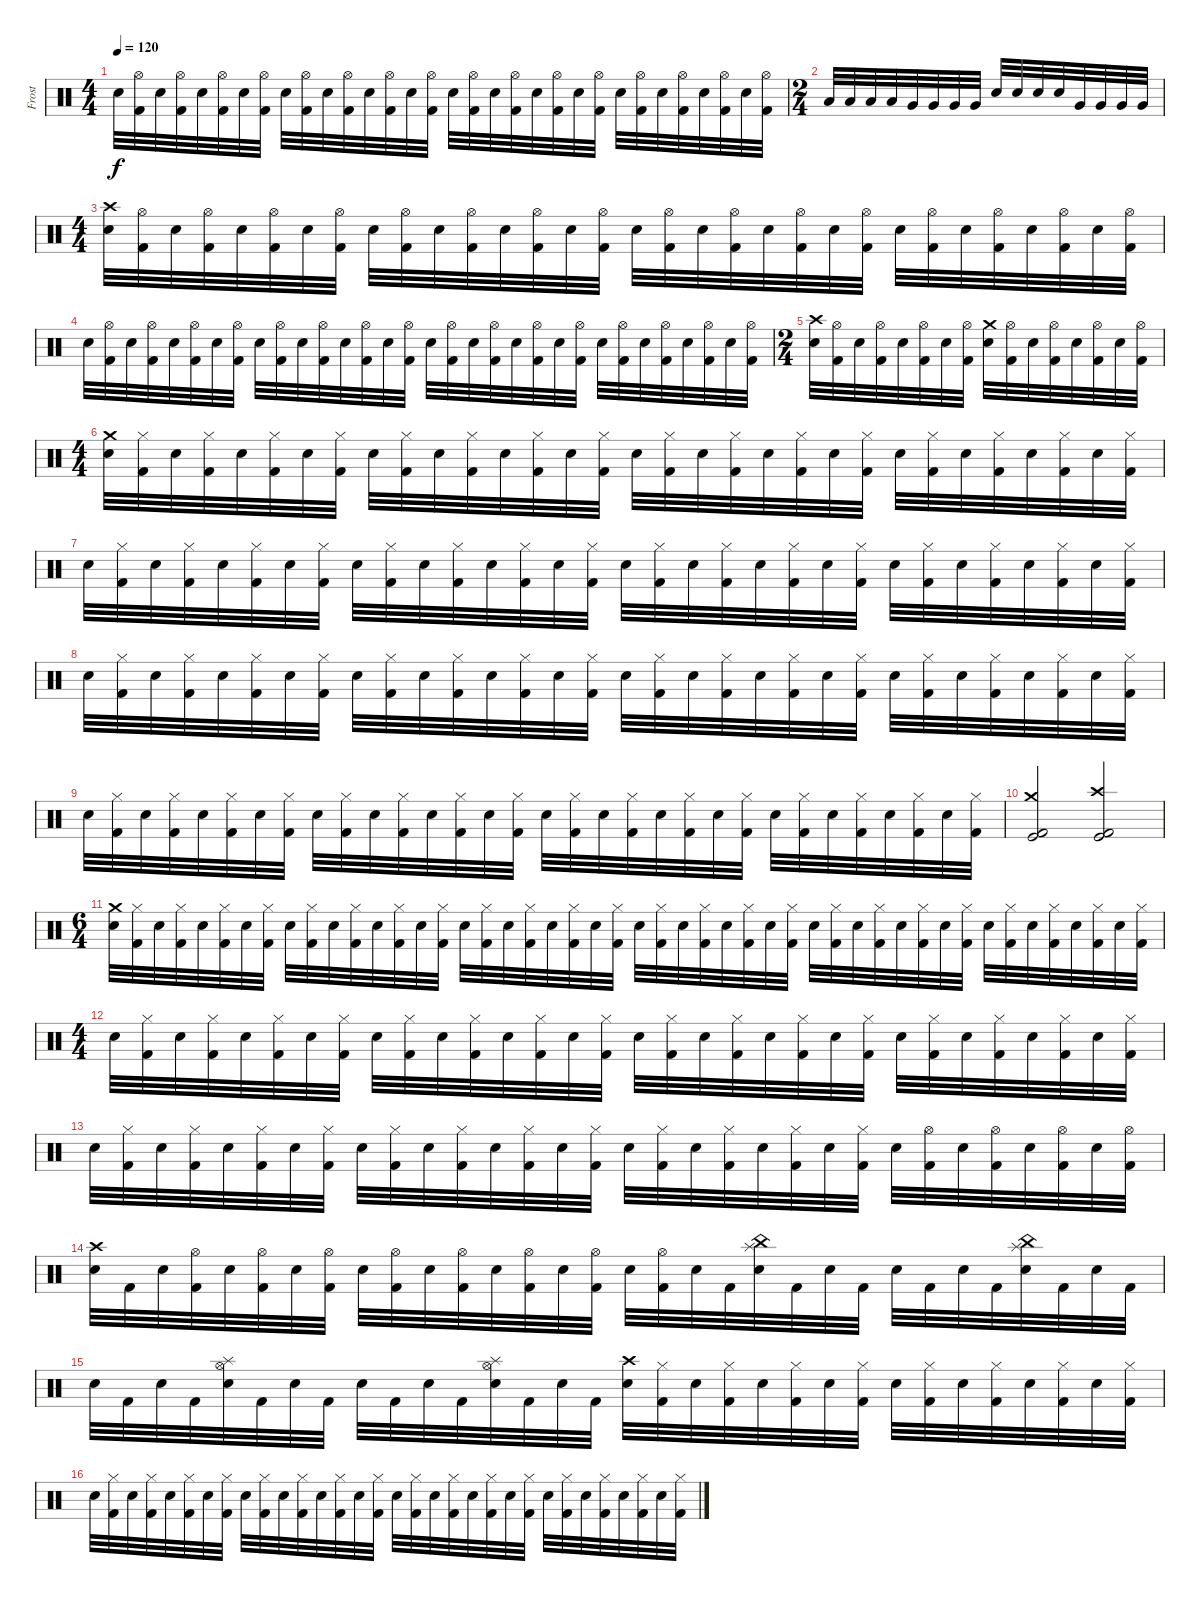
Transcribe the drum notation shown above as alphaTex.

\track ("Frost" "Frost") {instrument percussion}
\staff {score}
\articulation defaults
\ts (4 4)
\tempo 120
\clef neutral
\ks c "Snare (hit) 2".32{dy f}
("Hi-Hat (open)" "Kick (hit) 2").32 "Snare (hit) 2".32 ("Hi-Hat (open)" "Kick (hit) 2").32 "Snare (hit) 2".32 ("Hi-Hat (open)" "Kick (hit) 2").32 "Snare (hit) 2".32 ("Hi-Hat (open)" "Kick (hit) 2").32 "Snare (hit) 2".32 ("Hi-Hat (open)" "Kick (hit) 2").32 "Snare (hit) 2".32 ("Hi-Hat (open)" "Kick (hit) 2").32 "Snare (hit) 2".32 ("Hi-Hat (open)" "Kick (hit) 2").32 "Snare (hit) 2".32 ("Hi-Hat (open)" "Kick (hit) 2").32 "Snare (hit) 2".32 ("Hi-Hat (open)" "Kick (hit) 2").32 "Snare (hit) 2".32 ("Hi-Hat (open)" "Kick (hit) 2").32 "Snare (hit) 2".32 ("Hi-Hat (open)" "Kick (hit) 2").32 "Snare (hit) 2".32 ("Hi-Hat (open)" "Kick (hit) 2").32 "Snare (hit) 2".32 ("Hi-Hat (open)" "Kick (hit) 2").32 "Snare (hit) 2".32 ("Hi-Hat (open)" "Kick (hit) 2").32 "Snare (hit) 2".32 ("Hi-Hat (open)" "Kick (hit) 2").32 "Snare (hit) 2".32 ("Hi-Hat (open)" "Kick (hit) 2").32 |
\ts (2 4)
"Low Tom (hit)".32 "Low Tom (hit)".32 "Low Tom (hit)".32 "Low Tom (hit)".32 "Very Low Tom (hit)".32 "Very Low Tom (hit)".32 "Very Low Tom (hit)".32 "Very Low Tom (hit)".32 "Snare (hit) 2".32 "Snare (hit) 2".32 "Snare (hit) 2".32 "Snare (hit) 2".32 "Very Low Tom (hit)".32 "Very Low Tom (hit)".32 "Very Low Tom (hit)".32 "Very Low Tom (hit)".32 |
\ts (4 4)
("Crash high (hit)" "Snare (hit) 2").32 ("Hi-Hat (open)" "Kick (hit) 2").32 "Snare (hit) 2".32 ("Hi-Hat (open)" "Kick (hit) 2").32 "Snare (hit) 2".32 ("Hi-Hat (open)" "Kick (hit) 2").32 "Snare (hit) 2".32 ("Hi-Hat (open)" "Kick (hit) 2").32 "Snare (hit) 2".32 ("Hi-Hat (open)" "Kick (hit) 2").32 "Snare (hit) 2".32 ("Hi-Hat (open)" "Kick (hit) 2").32 "Snare (hit) 2".32 ("Hi-Hat (open)" "Kick (hit) 2").32 "Snare (hit) 2".32 ("Hi-Hat (open)" "Kick (hit) 2").32 "Snare (hit) 2".32 ("Hi-Hat (open)" "Kick (hit) 2").32 "Snare (hit) 2".32 ("Hi-Hat (open)" "Kick (hit) 2").32 "Snare (hit) 2".32 ("Hi-Hat (open)" "Kick (hit) 2").32 "Snare (hit) 2".32 ("Hi-Hat (open)" "Kick (hit) 2").32 "Snare (hit) 2".32 ("Hi-Hat (open)" "Kick (hit) 2").32 "Snare (hit) 2".32 ("Hi-Hat (open)" "Kick (hit) 2").32 "Snare (hit) 2".32 ("Hi-Hat (open)" "Kick (hit) 2").32 "Snare (hit) 2".32 ("Hi-Hat (open)" "Kick (hit) 2").32 |
"Snare (hit) 2".32 ("Hi-Hat (open)" "Kick (hit) 2").32 "Snare (hit) 2".32 ("Hi-Hat (open)" "Kick (hit) 2").32 "Snare (hit) 2".32 ("Hi-Hat (open)" "Kick (hit) 2").32 "Snare (hit) 2".32 ("Hi-Hat (open)" "Kick (hit) 2").32 "Snare (hit) 2".32 ("Hi-Hat (open)" "Kick (hit) 2").32 "Snare (hit) 2".32 ("Hi-Hat (open)" "Kick (hit) 2").32 "Snare (hit) 2".32 ("Hi-Hat (open)" "Kick (hit) 2").32 "Snare (hit) 2".32 ("Hi-Hat (open)" "Kick (hit) 2").32 "Snare (hit) 2".32 ("Hi-Hat (open)" "Kick (hit) 2").32 "Snare (hit) 2".32 ("Hi-Hat (open)" "Kick (hit) 2").32 "Snare (hit) 2".32 ("Hi-Hat (open)" "Kick (hit) 2").32 "Snare (hit) 2".32 ("Hi-Hat (open)" "Kick (hit) 2").32 "Snare (hit) 2".32 ("Hi-Hat (open)" "Kick (hit) 2").32 "Snare (hit) 2".32 ("Hi-Hat (open)" "Kick (hit) 2").32 "Snare (hit) 2".32 ("Hi-Hat (open)" "Kick (hit) 2").32 "Snare (hit) 2".32 ("Hi-Hat (open)" "Kick (hit) 2").32 |
\ts (2 4)
("Crash high (hit)" "Snare (hit) 2").32 ("Hi-Hat (open)" "Kick (hit) 2").32 "Snare (hit) 2".32 ("Hi-Hat (open)" "Kick (hit) 2").32 "Snare (hit) 2".32 ("Hi-Hat (open)" "Kick (hit) 2").32 "Snare (hit) 2".32 ("Hi-Hat (open)" "Kick (hit) 2").32 ("Crash medium (hit)" "Snare (hit) 2").32 ("Hi-Hat (open)" "Kick (hit) 2").32 "Snare (hit) 2".32 ("Hi-Hat (open)" "Kick (hit) 2").32 "Snare (hit) 2".32 ("Hi-Hat (open)" "Kick (hit) 2").32 "Snare (hit) 2".32 ("Hi-Hat (open)" "Kick (hit) 2").32 |
\ts (4 4)
("Crash medium (hit)" "Snare (hit) 2").32 ("Hi-Hat (closed)" "Kick (hit) 2").32 "Snare (hit) 2".32 ("Hi-Hat (closed)" "Kick (hit) 2").32 "Snare (hit) 2".32 ("Hi-Hat (closed)" "Kick (hit) 2").32 "Snare (hit) 2".32 ("Hi-Hat (closed)" "Kick (hit) 2").32 "Snare (hit) 2".32 ("Hi-Hat (closed)" "Kick (hit) 2").32 "Snare (hit) 2".32 ("Hi-Hat (closed)" "Kick (hit) 2").32 "Snare (hit) 2".32 ("Hi-Hat (closed)" "Kick (hit) 2").32 "Snare (hit) 2".32 ("Hi-Hat (closed)" "Kick (hit) 2").32 "Snare (hit) 2".32 ("Hi-Hat (closed)" "Kick (hit) 2").32 "Snare (hit) 2".32 ("Hi-Hat (closed)" "Kick (hit) 2").32 "Snare (hit) 2".32 ("Hi-Hat (closed)" "Kick (hit) 2").32 "Snare (hit) 2".32 ("Hi-Hat (closed)" "Kick (hit) 2").32 "Snare (hit) 2".32 ("Hi-Hat (closed)" "Kick (hit) 2").32 "Snare (hit) 2".32 ("Hi-Hat (closed)" "Kick (hit) 2").32 "Snare (hit) 2".32 ("Hi-Hat (closed)" "Kick (hit) 2").32 "Snare (hit) 2".32 ("Hi-Hat (closed)" "Kick (hit) 2").32 |
"Snare (hit) 2".32 ("Hi-Hat (closed)" "Kick (hit) 2").32 "Snare (hit) 2".32 ("Hi-Hat (closed)" "Kick (hit) 2").32 "Snare (hit) 2".32 ("Hi-Hat (closed)" "Kick (hit) 2").32 "Snare (hit) 2".32 ("Hi-Hat (closed)" "Kick (hit) 2").32 "Snare (hit) 2".32 ("Hi-Hat (closed)" "Kick (hit) 2").32 "Snare (hit) 2".32 ("Hi-Hat (closed)" "Kick (hit) 2").32 "Snare (hit) 2".32 ("Hi-Hat (closed)" "Kick (hit) 2").32 "Snare (hit) 2".32 ("Hi-Hat (closed)" "Kick (hit) 2").32 "Snare (hit) 2".32 ("Hi-Hat (closed)" "Kick (hit) 2").32 "Snare (hit) 2".32 ("Hi-Hat (closed)" "Kick (hit) 2").32 "Snare (hit) 2".32 ("Hi-Hat (closed)" "Kick (hit) 2").32 "Snare (hit) 2".32 ("Hi-Hat (closed)" "Kick (hit) 2").32 "Snare (hit) 2".32 ("Hi-Hat (closed)" "Kick (hit) 2").32 "Snare (hit) 2".32 ("Hi-Hat (closed)" "Kick (hit) 2").32 "Snare (hit) 2".32 ("Hi-Hat (closed)" "Kick (hit) 2").32 "Snare (hit) 2".32 ("Hi-Hat (closed)" "Kick (hit) 2").32 |
"Snare (hit) 2".32 ("Hi-Hat (closed)" "Kick (hit) 2").32 "Snare (hit) 2".32 ("Hi-Hat (closed)" "Kick (hit) 2").32 "Snare (hit) 2".32 ("Hi-Hat (closed)" "Kick (hit) 2").32 "Snare (hit) 2".32 ("Hi-Hat (closed)" "Kick (hit) 2").32 "Snare (hit) 2".32 ("Hi-Hat (closed)" "Kick (hit) 2").32 "Snare (hit) 2".32 ("Hi-Hat (closed)" "Kick (hit) 2").32 "Snare (hit) 2".32 ("Hi-Hat (closed)" "Kick (hit) 2").32 "Snare (hit) 2".32 ("Hi-Hat (closed)" "Kick (hit) 2").32 "Snare (hit) 2".32 ("Hi-Hat (closed)" "Kick (hit) 2").32 "Snare (hit) 2".32 ("Hi-Hat (closed)" "Kick (hit) 2").32 "Snare (hit) 2".32 ("Hi-Hat (closed)" "Kick (hit) 2").32 "Snare (hit) 2".32 ("Hi-Hat (closed)" "Kick (hit) 2").32 "Snare (hit) 2".32 ("Hi-Hat (closed)" "Kick (hit) 2").32 "Snare (hit) 2".32 ("Hi-Hat (closed)" "Kick (hit) 2").32 "Snare (hit) 2".32 ("Hi-Hat (closed)" "Kick (hit) 2").32 "Snare (hit) 2".32 ("Hi-Hat (closed)" "Kick (hit) 2").32 |
"Snare (hit) 2".32 ("Hi-Hat (closed)" "Kick (hit) 2").32 "Snare (hit) 2".32 ("Hi-Hat (closed)" "Kick (hit) 2").32 "Snare (hit) 2".32 ("Hi-Hat (closed)" "Kick (hit) 2").32 "Snare (hit) 2".32 ("Hi-Hat (closed)" "Kick (hit) 2").32 "Snare (hit) 2".32 ("Hi-Hat (closed)" "Kick (hit) 2").32 "Snare (hit) 2".32 ("Hi-Hat (closed)" "Kick (hit) 2").32 "Snare (hit) 2".32 ("Hi-Hat (closed)" "Kick (hit) 2").32 "Snare (hit) 2".32 ("Hi-Hat (closed)" "Kick (hit) 2").32 "Snare (hit) 2".32 ("Hi-Hat (closed)" "Kick (hit) 2").32 "Snare (hit) 2".32 ("Hi-Hat (closed)" "Kick (hit) 2").32 "Snare (hit) 2".32 ("Hi-Hat (closed)" "Kick (hit) 2").32 "Snare (hit) 2".32 ("Hi-Hat (closed)" "Kick (hit) 2").32 "Snare (hit) 2".32 ("Hi-Hat (closed)" "Kick (hit) 2").32 "Snare (hit) 2".32 ("Hi-Hat (closed)" "Kick (hit) 2").32 "Snare (hit) 2".32 ("Hi-Hat (closed)" "Kick (hit) 2").32 "Snare (hit) 2".32 ("Hi-Hat (closed)" "Kick (hit) 2").32 |
("Crash medium (hit)" "Kick (hit)" "Kick (hit) 2").2 ("Crash high (hit)" "Kick (hit)" "Kick (hit) 2").2 |
\ts (6 4)
("Crash medium (hit)" "Snare (hit) 2").32 ("Hi-Hat (closed)" "Kick (hit) 2").32 "Snare (hit) 2".32 ("Hi-Hat (closed)" "Kick (hit) 2").32 "Snare (hit) 2".32 ("Hi-Hat (closed)" "Kick (hit) 2").32 "Snare (hit) 2".32 ("Hi-Hat (closed)" "Kick (hit) 2").32 "Snare (hit) 2".32 ("Hi-Hat (closed)" "Kick (hit) 2").32 "Snare (hit) 2".32 ("Hi-Hat (closed)" "Kick (hit) 2").32 "Snare (hit) 2".32 ("Hi-Hat (closed)" "Kick (hit) 2").32 "Snare (hit) 2".32 ("Hi-Hat (closed)" "Kick (hit) 2").32 "Snare (hit) 2".32 ("Hi-Hat (closed)" "Kick (hit) 2").32 "Snare (hit) 2".32 ("Hi-Hat (closed)" "Kick (hit) 2").32 "Snare (hit) 2".32 ("Hi-Hat (closed)" "Kick (hit) 2").32 "Snare (hit) 2".32 ("Hi-Hat (closed)" "Kick (hit) 2").32 "Snare (hit) 2".32 ("Hi-Hat (closed)" "Kick (hit) 2").32 "Snare (hit) 2".32 ("Hi-Hat (closed)" "Kick (hit) 2").32 "Snare (hit) 2".32 ("Hi-Hat (closed)" "Kick (hit) 2").32 "Snare (hit) 2".32 ("Hi-Hat (closed)" "Kick (hit) 2").32 "Snare (hit) 2".32 ("Hi-Hat (closed)" "Kick (hit) 2").32 "Snare (hit) 2".32 ("Hi-Hat (closed)" "Kick (hit) 2").32 "Snare (hit) 2".32 ("Hi-Hat (closed)" "Kick (hit) 2").32 "Snare (hit) 2".32 ("Hi-Hat (closed)" "Kick (hit) 2").32 "Snare (hit) 2".32 ("Hi-Hat (closed)" "Kick (hit) 2").32 "Snare (hit) 2".32 ("Hi-Hat (closed)" "Kick (hit) 2").32 "Snare (hit) 2".32 ("Hi-Hat (closed)" "Kick (hit) 2").32 "Snare (hit) 2".32 ("Hi-Hat (closed)" "Kick (hit) 2").32 |
\ts (4 4)
"Snare (hit) 2".32 ("Hi-Hat (closed)" "Kick (hit) 2").32 "Snare (hit) 2".32 ("Hi-Hat (closed)" "Kick (hit) 2").32 "Snare (hit) 2".32 ("Hi-Hat (closed)" "Kick (hit) 2").32 "Snare (hit) 2".32 ("Hi-Hat (closed)" "Kick (hit) 2").32 "Snare (hit) 2".32 ("Hi-Hat (closed)" "Kick (hit) 2").32 "Snare (hit) 2".32 ("Hi-Hat (closed)" "Kick (hit) 2").32 "Snare (hit) 2".32 ("Hi-Hat (closed)" "Kick (hit) 2").32 "Snare (hit) 2".32 ("Hi-Hat (closed)" "Kick (hit) 2").32 "Snare (hit) 2".32 ("Hi-Hat (closed)" "Kick (hit) 2").32 "Snare (hit) 2".32 ("Hi-Hat (closed)" "Kick (hit) 2").32 "Snare (hit) 2".32 ("Hi-Hat (closed)" "Kick (hit) 2").32 "Snare (hit) 2".32 ("Hi-Hat (closed)" "Kick (hit) 2").32 "Snare (hit) 2".32 ("Hi-Hat (closed)" "Kick (hit) 2").32 "Snare (hit) 2".32 ("Hi-Hat (closed)" "Kick (hit) 2").32 "Snare (hit) 2".32 ("Hi-Hat (closed)" "Kick (hit) 2").32 "Snare (hit) 2".32 ("Hi-Hat (closed)" "Kick (hit) 2").32 |
"Snare (hit) 2".32 ("Hi-Hat (closed)" "Kick (hit) 2").32 "Snare (hit) 2".32 ("Hi-Hat (closed)" "Kick (hit) 2").32 "Snare (hit) 2".32 ("Hi-Hat (closed)" "Kick (hit) 2").32 "Snare (hit) 2".32 ("Hi-Hat (closed)" "Kick (hit) 2").32 "Snare (hit) 2".32 ("Hi-Hat (closed)" "Kick (hit) 2").32 "Snare (hit) 2".32 ("Hi-Hat (closed)" "Kick (hit) 2").32 "Snare (hit) 2".32 ("Hi-Hat (closed)" "Kick (hit) 2").32 "Snare (hit) 2".32 ("Hi-Hat (closed)" "Kick (hit) 2").32 "Snare (hit) 2".32 ("Hi-Hat (closed)" "Kick (hit) 2").32 "Snare (hit) 2".32 ("Hi-Hat (closed)" "Kick (hit) 2").32 "Snare (hit) 2".32 ("Hi-Hat (closed)" "Kick (hit) 2").32 "Snare (hit) 2".32 ("Hi-Hat (closed)" "Kick (hit) 2").32 "Snare (hit) 2".32 ("Hi-Hat (open)" "Kick (hit) 2").32 "Snare (hit) 2".32 ("Hi-Hat (open)" "Kick (hit) 2").32 "Snare (hit) 2".32 ("Hi-Hat (open)" "Kick (hit) 2").32 "Snare (hit) 2".32 ("Hi-Hat (open)" "Kick (hit) 2").32 |
("Crash high (hit)" "Snare (hit) 2").32 "Kick (hit) 2".32 "Snare (hit) 2".32 ("Hi-Hat (open)" "Kick (hit) 2").32 "Snare (hit) 2".32 ("Hi-Hat (open)" "Kick (hit) 2").32 "Snare (hit) 2".32 ("Hi-Hat (open)" "Kick (hit) 2").32 "Snare (hit) 2".32 ("Hi-Hat (open)" "Kick (hit) 2").32 "Snare (hit) 2".32 ("Hi-Hat (open)" "Kick (hit) 2").32 "Snare (hit) 2".32 ("Hi-Hat (open)" "Kick (hit) 2").32 "Snare (hit) 2".32 ("Hi-Hat (open)" "Kick (hit) 2").32 "Snare (hit) 2".32 ("Hi-Hat (open)" "Kick (hit) 2").32 "Snare (hit) 2".32 "Kick (hit) 2".32 ("Splash (hit)" "China (hit)" "Snare (hit) 2").32 "Kick (hit) 2".32 "Snare (hit) 2".32 "Kick (hit) 2".32 "Snare (hit) 2".32 "Kick (hit) 2".32 "Snare (hit) 2".32 "Kick (hit) 2".32 ("Splash (hit)" "China (hit)" "Snare (hit) 2").32 "Kick (hit) 2".32 "Snare (hit) 2".32 "Kick (hit) 2".32 |
"Snare (hit) 2".32 "Kick (hit) 2".32 "Snare (hit) 2".32 "Kick (hit) 2".32 ("Splash (hit)" "Hi-Hat (open)" "Snare (hit) 2").32 "Kick (hit) 2".32 "Snare (hit) 2".32 "Kick (hit) 2".32 "Snare (hit) 2".32 "Kick (hit) 2".32 "Snare (hit) 2".32 "Kick (hit) 2".32 ("Splash (hit)" "Hi-Hat (open)" "Snare (hit) 2").32 "Kick (hit) 2".32 "Snare (hit) 2".32 "Kick (hit) 2".32 ("Crash high (hit)" "Snare (hit) 2").32 ("Hi-Hat (closed)" "Kick (hit) 2").32 "Snare (hit) 2".32 ("Hi-Hat (closed)" "Kick (hit) 2").32 "Snare (hit) 2".32 ("Hi-Hat (closed)" "Kick (hit) 2").32 "Snare (hit) 2".32 ("Hi-Hat (closed)" "Kick (hit) 2").32 "Snare (hit) 2".32 ("Hi-Hat (closed)" "Kick (hit) 2").32 "Snare (hit) 2".32 ("Hi-Hat (closed)" "Kick (hit) 2").32 "Snare (hit) 2".32 ("Hi-Hat (closed)" "Kick (hit) 2").32 "Snare (hit) 2".32 ("Hi-Hat (closed)" "Kick (hit) 2").32 |
"Snare (hit) 2".32 ("Hi-Hat (closed)" "Kick (hit) 2").32 "Snare (hit) 2".32 ("Hi-Hat (closed)" "Kick (hit) 2").32 "Snare (hit) 2".32 ("Hi-Hat (closed)" "Kick (hit) 2").32 "Snare (hit) 2".32 ("Hi-Hat (closed)" "Kick (hit) 2").32 "Snare (hit) 2".32 ("Hi-Hat (closed)" "Kick (hit) 2").32 "Snare (hit) 2".32 ("Hi-Hat (closed)" "Kick (hit) 2").32 "Snare (hit) 2".32 ("Hi-Hat (closed)" "Kick (hit) 2").32 "Snare (hit) 2".32 ("Hi-Hat (closed)" "Kick (hit) 2").32 "Snare (hit) 2".32 ("Hi-Hat (closed)" "Kick (hit) 2").32 "Snare (hit) 2".32 ("Hi-Hat (closed)" "Kick (hit) 2").32 "Snare (hit) 2".32 ("Hi-Hat (closed)" "Kick (hit) 2").32 "Snare (hit) 2".32 ("Hi-Hat (closed)" "Kick (hit) 2").32 "Snare (hit) 2".32 ("Hi-Hat (closed)" "Kick (hit) 2").32 "Snare (hit) 2".32 ("Hi-Hat (closed)" "Kick (hit) 2").32 "Snare (hit) 2".32 ("Hi-Hat (closed)" "Kick (hit) 2").32 "Snare (hit) 2".32 ("Hi-Hat (closed)" "Kick (hit) 2").32
